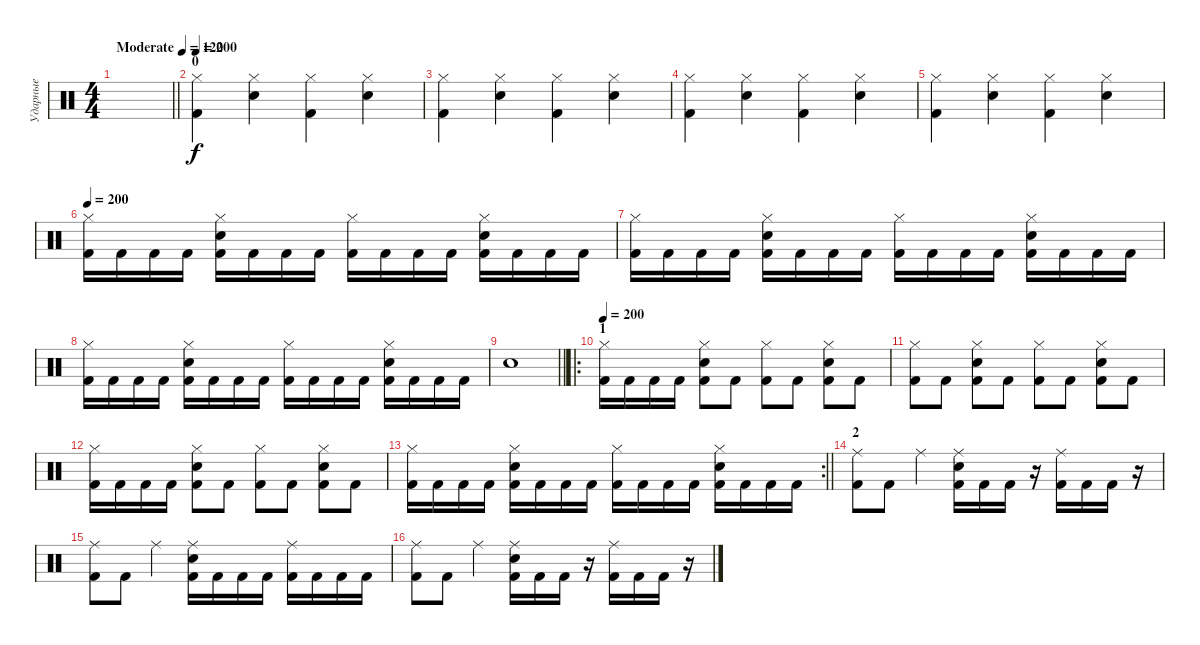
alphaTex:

\track ("Ударные" "Ударные") {instrument percussion}
\staff {score}
\articulation defaults
\ts (4 4)
\tempo (120 "Moderate")
\tempo 200
\tempo (120 "Moderate")
\clef neutral
\barLineRight lightlight
\ks c
|
\section ("" "0")
\tempo 200
("Hi-Hat (closed)" "Kick (hit) 2").4 ("Hi-Hat (closed)" "Electric Snare (hit)").4 ("Hi-Hat (closed)" "Kick (hit) 2").4 ("Hi-Hat (closed)" "Electric Snare (hit)").4 |
("Hi-Hat (closed)" "Kick (hit) 2").4 ("Hi-Hat (closed)" "Electric Snare (hit)").4 ("Hi-Hat (closed)" "Kick (hit) 2").4 ("Hi-Hat (closed)" "Electric Snare (hit)").4 |
("Hi-Hat (closed)" "Kick (hit) 2").4 ("Hi-Hat (closed)" "Electric Snare (hit)").4 ("Hi-Hat (closed)" "Kick (hit) 2").4 ("Hi-Hat (closed)" "Electric Snare (hit)").4 |
("Hi-Hat (closed)" "Kick (hit) 2").4 ("Hi-Hat (closed)" "Electric Snare (hit)").4 ("Hi-Hat (closed)" "Kick (hit) 2").4 ("Hi-Hat (closed)" "Electric Snare (hit)").4 |
\tempo 200
("Hi-Hat (closed)" "Kick (hit) 2").16 "Kick (hit) 2".16 "Kick (hit) 2".16 "Kick (hit) 2".16 ("Hi-Hat (closed)" "Electric Snare (hit)" "Kick (hit) 2").16 "Kick (hit) 2".16 "Kick (hit) 2".16 "Kick (hit) 2".16 ("Hi-Hat (closed)" "Kick (hit) 2").16 "Kick (hit) 2".16 "Kick (hit) 2".16 "Kick (hit) 2".16 ("Hi-Hat (closed)" "Electric Snare (hit)" "Kick (hit) 2").16 "Kick (hit) 2".16 "Kick (hit) 2".16 "Kick (hit) 2".16 |
("Hi-Hat (closed)" "Kick (hit) 2").16 "Kick (hit) 2".16 "Kick (hit) 2".16 "Kick (hit) 2".16 ("Hi-Hat (closed)" "Electric Snare (hit)" "Kick (hit) 2").16 "Kick (hit) 2".16 "Kick (hit) 2".16 "Kick (hit) 2".16 ("Hi-Hat (closed)" "Kick (hit) 2").16 "Kick (hit) 2".16 "Kick (hit) 2".16 "Kick (hit) 2".16 ("Hi-Hat (closed)" "Electric Snare (hit)" "Kick (hit) 2").16 "Kick (hit) 2".16 "Kick (hit) 2".16 "Kick (hit) 2".16 |
("Hi-Hat (closed)" "Kick (hit) 2").16 "Kick (hit) 2".16 "Kick (hit) 2".16 "Kick (hit) 2".16 ("Hi-Hat (closed)" "Electric Snare (hit)" "Kick (hit) 2").16 "Kick (hit) 2".16 "Kick (hit) 2".16 "Kick (hit) 2".16 ("Hi-Hat (closed)" "Kick (hit) 2").16 "Kick (hit) 2".16 "Kick (hit) 2".16 "Kick (hit) 2".16 ("Hi-Hat (closed)" "Electric Snare (hit)" "Kick (hit) 2").16 "Kick (hit) 2".16 "Kick (hit) 2".16 "Kick (hit) 2".16 |
\barLineRight lightlight "Electric Snare (hit)".1
|
\ro
\section ("" "1")
\tempo 200
("Hi-Hat (closed)" "Kick (hit) 2").16 "Kick (hit) 2".16 "Kick (hit) 2".16 "Kick (hit) 2".16 ("Hi-Hat (closed)" "Electric Snare (hit)" "Kick (hit) 2").8 "Kick (hit) 2".8 ("Hi-Hat (closed)" "Kick (hit) 2").8 "Kick (hit) 2".8 ("Hi-Hat (closed)" "Electric Snare (hit)" "Kick (hit) 2").8 "Kick (hit) 2".8 |
("Hi-Hat (closed)" "Kick (hit) 2").8 "Kick (hit) 2".8 ("Hi-Hat (closed)" "Electric Snare (hit)" "Kick (hit) 2").8 "Kick (hit) 2".8 ("Hi-Hat (closed)" "Kick (hit) 2").8 "Kick (hit) 2".8 ("Hi-Hat (closed)" "Electric Snare (hit)" "Kick (hit) 2").8 "Kick (hit) 2".8 |
("Hi-Hat (closed)" "Kick (hit) 2").16 "Kick (hit) 2".16 "Kick (hit) 2".16 "Kick (hit) 2".16 ("Hi-Hat (closed)" "Electric Snare (hit)" "Kick (hit) 2").8 "Kick (hit) 2".8 ("Hi-Hat (closed)" "Kick (hit) 2").8 "Kick (hit) 2".8 ("Hi-Hat (closed)" "Electric Snare (hit)" "Kick (hit) 2").8 "Kick (hit) 2".8 |
\rc 2
\barLineRight lightlight
("Hi-Hat (closed)" "Kick (hit) 2").16 "Kick (hit) 2".16 "Kick (hit) 2".16 "Kick (hit) 2".16 ("Hi-Hat (closed)" "Electric Snare (hit)" "Kick (hit) 2").16 "Kick (hit) 2".16 "Kick (hit) 2".16 "Kick (hit) 2".16 ("Hi-Hat (closed)" "Kick (hit) 2").16 "Kick (hit) 2".16 "Kick (hit) 2".16 "Kick (hit) 2".16 ("Hi-Hat (closed)" "Electric Snare (hit)" "Kick (hit) 2").16 "Kick (hit) 2".16 "Kick (hit) 2".16 "Kick (hit) 2".16 |
\section ("" "2")
("Ride (middle)" "Kick (hit) 2").8 "Kick (hit) 2".8 "Ride (middle)".4 ("Ride (middle)" "Electric Snare (hit)" "Kick (hit) 2").16 "Kick (hit) 2".16 "Kick (hit) 2".16 r.16 ("Ride (middle)" "Kick (hit) 2").16 "Kick (hit) 2".16 "Kick (hit) 2".16 r.16 |
("Ride (middle)" "Kick (hit) 2").8 "Kick (hit) 2".8 "Ride (middle)".4 ("Ride (middle)" "Electric Snare (hit)" "Kick (hit) 2").16 "Kick (hit) 2".16 "Kick (hit) 2".16 "Kick (hit) 2".16 ("Ride (middle)" "Kick (hit) 2").16 "Kick (hit) 2".16 "Kick (hit) 2".16 "Kick (hit) 2".16 |
("Ride (middle)" "Kick (hit) 2").8 "Kick (hit) 2".8 "Ride (middle)".4 ("Ride (middle)" "Electric Snare (hit)" "Kick (hit) 2").16 "Kick (hit) 2".16 "Kick (hit) 2".16 r.16 ("Ride (middle)" "Kick (hit) 2").16 "Kick (hit) 2".16 "Kick (hit) 2".16 r.16
